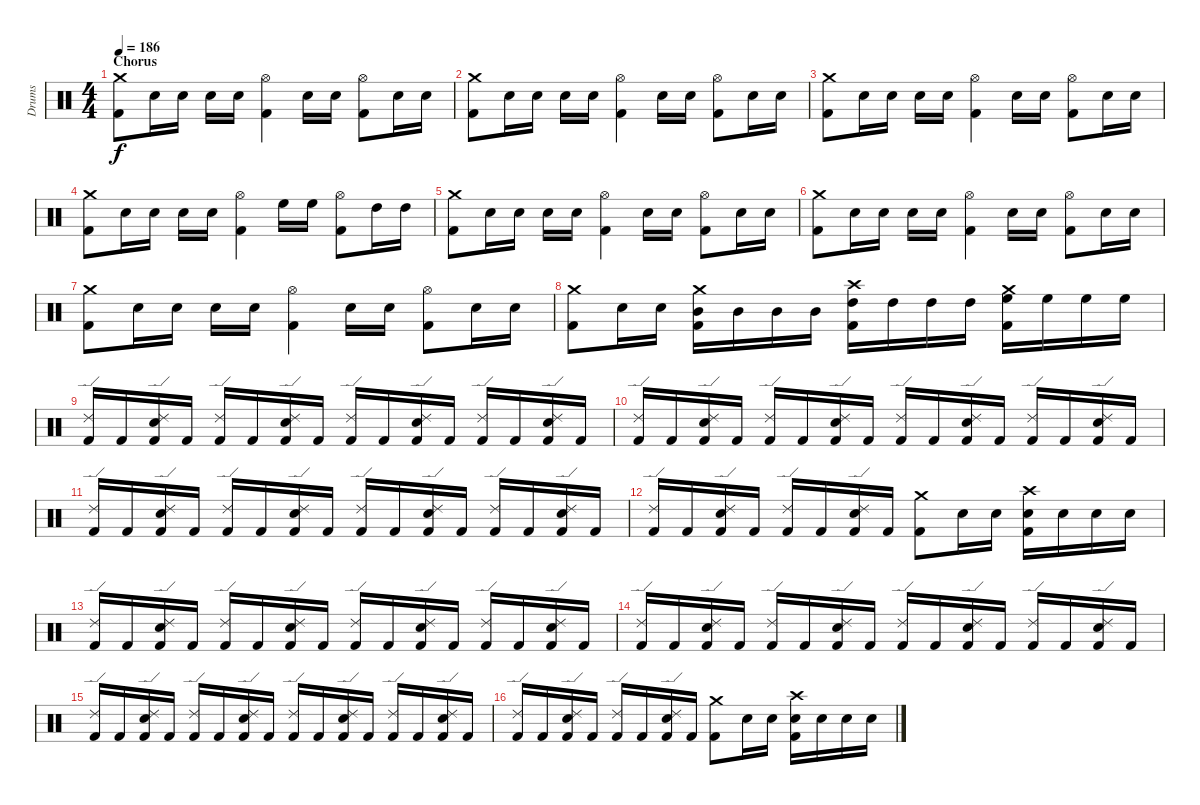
\track ("Drums" "Drums") {instrument percussion}
\staff {score}
\articulation defaults
\ts (4 4)
\section ("" "Chorus")
\tempo 186
\clef neutral
\ks c
("Crash medium (hit)" "Kick (hit) 2").8{dy f} "Electric Snare (hit)".16 "Electric Snare (hit)".16 "Electric Snare (hit)".16 "Electric Snare (hit)".16 ("Hi-Hat (open)" "Kick (hit) 2").4 "Electric Snare (hit)".16 "Electric Snare (hit)".16 ("Hi-Hat (open)" "Kick (hit) 2").8 "Electric Snare (hit)".16 "Electric Snare (hit)".16 |
("Crash medium (hit)" "Kick (hit) 2").8 "Electric Snare (hit)".16 "Electric Snare (hit)".16 "Electric Snare (hit)".16 "Electric Snare (hit)".16 ("Hi-Hat (open)" "Kick (hit) 2").4 "Electric Snare (hit)".16 "Electric Snare (hit)".16 ("Hi-Hat (open)" "Kick (hit) 2").8 "Electric Snare (hit)".16 "Electric Snare (hit)".16 |
("Crash medium (hit)" "Kick (hit) 2").8 "Electric Snare (hit)".16 "Electric Snare (hit)".16 "Electric Snare (hit)".16 "Electric Snare (hit)".16 ("Hi-Hat (open)" "Kick (hit) 2").4 "Electric Snare (hit)".16 "Electric Snare (hit)".16 ("Hi-Hat (open)" "Kick (hit) 2").8 "Electric Snare (hit)".16 "Electric Snare (hit)".16 |
("Crash medium (hit)" "Kick (hit) 2").8 "Electric Snare (hit)".16 "Electric Snare (hit)".16 "Electric Snare (hit)".16 "Electric Snare (hit)".16 ("Hi-Hat (open)" "Kick (hit) 2").4 "High Floor Tom (hit)".16 "High Floor Tom (hit)".16 ("Hi-Hat (open)" "Kick (hit) 2").8 "High Tom (hit)".16 "High Tom (hit)".16 |
("Crash medium (hit)" "Kick (hit) 2").8 "Electric Snare (hit)".16 "Electric Snare (hit)".16 "Electric Snare (hit)".16 "Electric Snare (hit)".16 ("Hi-Hat (open)" "Kick (hit) 2").4 "Electric Snare (hit)".16 "Electric Snare (hit)".16 ("Hi-Hat (open)" "Kick (hit) 2").8 "Electric Snare (hit)".16 "Electric Snare (hit)".16 |
("Crash medium (hit)" "Kick (hit) 2").8 "Electric Snare (hit)".16 "Electric Snare (hit)".16 "Electric Snare (hit)".16 "Electric Snare (hit)".16 ("Hi-Hat (open)" "Kick (hit) 2").4 "Electric Snare (hit)".16 "Electric Snare (hit)".16 ("Hi-Hat (open)" "Kick (hit) 2").8 "Electric Snare (hit)".16 "Electric Snare (hit)".16 |
("Crash medium (hit)" "Kick (hit) 2").8 "Electric Snare (hit)".16 "Electric Snare (hit)".16 "Electric Snare (hit)".16 "Electric Snare (hit)".16 ("Hi-Hat (open)" "Kick (hit) 2").4 "Electric Snare (hit)".16 "Electric Snare (hit)".16 ("Hi-Hat (open)" "Kick (hit) 2").8 "Electric Snare (hit)".16 "Electric Snare (hit)".16 |
("Crash medium (hit)" "Kick (hit) 2").8 "Electric Snare (hit)".16 "Electric Snare (hit)".16 ("Crash medium (hit)" "Mid Tom (hit)" "Kick (hit) 2").16 "Mid Tom (hit)".16 "Mid Tom (hit)".16 "Mid Tom (hit)".16 ("Crash high (hit)" "High Tom (hit)" "Kick (hit) 2").16 "High Tom (hit)".16 "High Tom (hit)".16 "High Tom (hit)".16 ("Crash medium (hit)" "High Floor Tom (hit)" "Kick (hit) 2").16 "High Floor Tom (hit)".16 "High Floor Tom (hit)".16 "High Floor Tom (hit)".16 |
("Ride (edge) 2" "Kick (hit) 2").16 "Kick (hit) 2".16 ("Electric Snare (hit)" "Ride (edge) 2" "Kick (hit) 2").16 "Kick (hit) 2".16 ("Ride (edge) 2" "Kick (hit) 2").16 "Kick (hit) 2".16 ("Electric Snare (hit)" "Ride (edge) 2" "Kick (hit) 2").16 "Kick (hit) 2".16 ("Ride (edge) 2" "Kick (hit) 2").16 "Kick (hit) 2".16 ("Electric Snare (hit)" "Ride (edge) 2" "Kick (hit) 2").16 "Kick (hit) 2".16 ("Ride (edge) 2" "Kick (hit) 2").16 "Kick (hit) 2".16 ("Electric Snare (hit)" "Ride (edge) 2" "Kick (hit) 2").16 "Kick (hit) 2".16 |
("Ride (edge) 2" "Kick (hit) 2").16 "Kick (hit) 2".16 ("Electric Snare (hit)" "Ride (edge) 2" "Kick (hit) 2").16 "Kick (hit) 2".16 ("Ride (edge) 2" "Kick (hit) 2").16 "Kick (hit) 2".16 ("Electric Snare (hit)" "Ride (edge) 2" "Kick (hit) 2").16 "Kick (hit) 2".16 ("Ride (edge) 2" "Kick (hit) 2").16 "Kick (hit) 2".16 ("Electric Snare (hit)" "Ride (edge) 2" "Kick (hit) 2").16 "Kick (hit) 2".16 ("Ride (edge) 2" "Kick (hit) 2").16 "Kick (hit) 2".16 ("Electric Snare (hit)" "Ride (edge) 2" "Kick (hit) 2").16 "Kick (hit) 2".16 |
("Ride (edge) 2" "Kick (hit) 2").16 "Kick (hit) 2".16 ("Electric Snare (hit)" "Ride (edge) 2" "Kick (hit) 2").16 "Kick (hit) 2".16 ("Ride (edge) 2" "Kick (hit) 2").16 "Kick (hit) 2".16 ("Electric Snare (hit)" "Ride (edge) 2" "Kick (hit) 2").16 "Kick (hit) 2".16 ("Ride (edge) 2" "Kick (hit) 2").16 "Kick (hit) 2".16 ("Electric Snare (hit)" "Ride (edge) 2" "Kick (hit) 2").16 "Kick (hit) 2".16 ("Ride (edge) 2" "Kick (hit) 2").16 "Kick (hit) 2".16 ("Electric Snare (hit)" "Ride (edge) 2" "Kick (hit) 2").16 "Kick (hit) 2".16 |
("Ride (edge) 2" "Kick (hit) 2").16 "Kick (hit) 2".16 ("Electric Snare (hit)" "Ride (edge) 2" "Kick (hit) 2").16 "Kick (hit) 2".16 ("Ride (edge) 2" "Kick (hit) 2").16 "Kick (hit) 2".16 ("Electric Snare (hit)" "Ride (edge) 2" "Kick (hit) 2").16 "Kick (hit) 2".16 ("Crash medium (hit)" "Kick (hit) 2").8 "Electric Snare (hit)".16 "Electric Snare (hit)".16 ("Crash high (hit)" "Electric Snare (hit)" "Kick (hit) 2").16 "Electric Snare (hit)".16 "Electric Snare (hit)".16 "Electric Snare (hit)".16 |
("Ride (edge) 2" "Kick (hit) 2").16 "Kick (hit) 2".16 ("Electric Snare (hit)" "Ride (edge) 2" "Kick (hit) 2").16 "Kick (hit) 2".16 ("Ride (edge) 2" "Kick (hit) 2").16 "Kick (hit) 2".16 ("Electric Snare (hit)" "Ride (edge) 2" "Kick (hit) 2").16 "Kick (hit) 2".16 ("Ride (edge) 2" "Kick (hit) 2").16 "Kick (hit) 2".16 ("Electric Snare (hit)" "Ride (edge) 2" "Kick (hit) 2").16 "Kick (hit) 2".16 ("Ride (edge) 2" "Kick (hit) 2").16 "Kick (hit) 2".16 ("Electric Snare (hit)" "Ride (edge) 2" "Kick (hit) 2").16 "Kick (hit) 2".16 |
("Ride (edge) 2" "Kick (hit) 2").16 "Kick (hit) 2".16 ("Electric Snare (hit)" "Ride (edge) 2" "Kick (hit) 2").16 "Kick (hit) 2".16 ("Ride (edge) 2" "Kick (hit) 2").16 "Kick (hit) 2".16 ("Electric Snare (hit)" "Ride (edge) 2" "Kick (hit) 2").16 "Kick (hit) 2".16 ("Ride (edge) 2" "Kick (hit) 2").16 "Kick (hit) 2".16 ("Electric Snare (hit)" "Ride (edge) 2" "Kick (hit) 2").16 "Kick (hit) 2".16 ("Ride (edge) 2" "Kick (hit) 2").16 "Kick (hit) 2".16 ("Electric Snare (hit)" "Ride (edge) 2" "Kick (hit) 2").16 "Kick (hit) 2".16 |
("Ride (edge) 2" "Kick (hit) 2").16 "Kick (hit) 2".16 ("Electric Snare (hit)" "Ride (edge) 2" "Kick (hit) 2").16 "Kick (hit) 2".16 ("Ride (edge) 2" "Kick (hit) 2").16 "Kick (hit) 2".16 ("Electric Snare (hit)" "Ride (edge) 2" "Kick (hit) 2").16 "Kick (hit) 2".16 ("Ride (edge) 2" "Kick (hit) 2").16 "Kick (hit) 2".16 ("Electric Snare (hit)" "Ride (edge) 2" "Kick (hit) 2").16 "Kick (hit) 2".16 ("Ride (edge) 2" "Kick (hit) 2").16 "Kick (hit) 2".16 ("Electric Snare (hit)" "Ride (edge) 2" "Kick (hit) 2").16 "Kick (hit) 2".16 |
("Ride (edge) 2" "Kick (hit) 2").16 "Kick (hit) 2".16 ("Electric Snare (hit)" "Ride (edge) 2" "Kick (hit) 2").16 "Kick (hit) 2".16 ("Ride (edge) 2" "Kick (hit) 2").16 "Kick (hit) 2".16 ("Electric Snare (hit)" "Ride (edge) 2" "Kick (hit) 2").16 "Kick (hit) 2".16 ("Crash medium (hit)" "Kick (hit) 2").8 "Electric Snare (hit)".16 "Electric Snare (hit)".16 ("Crash high (hit)" "Electric Snare (hit)" "Kick (hit) 2").16 "Electric Snare (hit)".16 "Electric Snare (hit)".16 "Electric Snare (hit)".16
